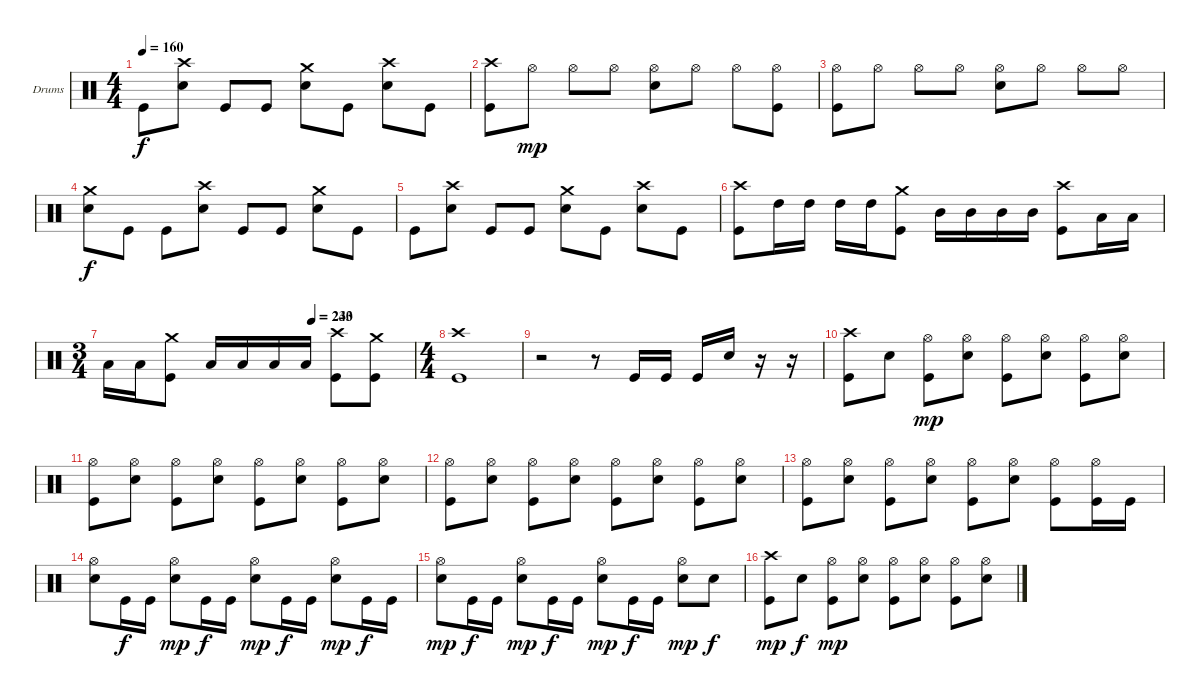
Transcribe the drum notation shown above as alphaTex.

\bracketExtendMode groupsimilarinstruments
\firstSystemTrackNameOrientation horizontal
\otherSystemsTrackNameOrientation horizontal
\track ("Drumkit" "Drums") {instrument percussion}
\staff {score}
\articulation defaults
\ts (4 4)
\tempo 160
\clef neutral
\ks c "Kick (hit)".8{dy f}
("Crash high (hit)" "Snare (hit) 2").8 "Kick (hit)".8 "Kick (hit)".8 ("Crash medium (hit)" "Snare (hit) 2").8 "Kick (hit)".8 ("Crash high (hit)" "Snare (hit) 2").8 "Kick (hit)".8 |
("Crash high (hit)" "Kick (hit)").8 "Hi-Hat (open)".8{dy mp} "Hi-Hat (open)".8 "Hi-Hat (open)".8 ("Hi-Hat (open)" "Snare (hit) 2").8 "Hi-Hat (open)".8 "Hi-Hat (open)".8 ("Hi-Hat (open)" "Kick (hit)").8 |
("Hi-Hat (open)" "Kick (hit)").8 "Hi-Hat (open)".8 "Hi-Hat (open)".8 "Hi-Hat (open)".8 ("Hi-Hat (open)" "Snare (hit) 2").8 "Hi-Hat (open)".8 "Hi-Hat (open)".8 "Hi-Hat (open)".8 |
("Crash medium (hit)" "Snare (hit) 2").8{dy f} "Kick (hit)".8 "Kick (hit)".8 ("Crash high (hit)" "Snare (hit) 2").8 "Kick (hit)".8 "Kick (hit)".8 ("Crash medium (hit)" "Snare (hit) 2").8 "Kick (hit)".8 |
"Kick (hit)".8 ("Crash high (hit)" "Snare (hit) 2").8 "Kick (hit)".8 "Kick (hit)".8 ("Crash medium (hit)" "Snare (hit) 2").8 "Kick (hit)".8 ("Crash high (hit)" "Snare (hit) 2").8 "Kick (hit)".8 |
("Crash high (hit)" "Kick (hit)").8 "High Tom (hit)".16 "High Tom (hit)".16 "High Tom (hit)".16 "High Tom (hit)".16 ("Crash medium (hit)" "Kick (hit)").8 "Mid Tom (hit)".16 "Mid Tom (hit)".16 "Mid Tom (hit)".16 "Mid Tom (hit)".16 ("Crash high (hit)" "Kick (hit)").8 "Low Tom (hit)".16 "Low Tom (hit)".16 |
\ts (3 4)
\beaming (8 2 2 2)
\tempo (233 0.666567)
\tempo (240 0.666667)
"Low Tom (hit)".16 "Low Tom (hit)".16 ("Crash medium (hit)" "Kick (hit)").8 "Low Tom (hit)".16 "Low Tom (hit)".16 "Low Tom (hit)".16 "Low Tom (hit)".16 ("Crash high (hit)" "Kick (hit)").8 ("Crash medium (hit)" "Kick (hit)").8 |
\ts (4 4)
\beaming (8 2 2 2 2)
("Crash high (hit)" "Kick (hit)").1 |
r.2 r.8 "Kick (hit)".16 "Kick (hit)".16 "Kick (hit)".16 "Snare (hit) 2".16 r.16 r.16 |
("Crash high (hit)" "Kick (hit)").8 "Snare (hit) 2".8 ("Hi-Hat (open)" "Kick (hit)").8{dy mp} ("Hi-Hat (open)" "Snare (hit) 2").8 ("Hi-Hat (open)" "Kick (hit)").8 ("Hi-Hat (open)" "Snare (hit) 2").8 ("Hi-Hat (open)" "Kick (hit)").8 ("Hi-Hat (open)" "Snare (hit) 2").8 |
("Hi-Hat (open)" "Kick (hit)").8 ("Hi-Hat (open)" "Snare (hit) 2").8 ("Hi-Hat (open)" "Kick (hit)").8 ("Hi-Hat (open)" "Snare (hit) 2").8 ("Hi-Hat (open)" "Kick (hit)").8 ("Hi-Hat (open)" "Snare (hit) 2").8 ("Hi-Hat (open)" "Kick (hit)").8 ("Hi-Hat (open)" "Snare (hit) 2").8 |
("Hi-Hat (open)" "Kick (hit)").8 ("Hi-Hat (open)" "Snare (hit) 2").8 ("Hi-Hat (open)" "Kick (hit)").8 ("Hi-Hat (open)" "Snare (hit) 2").8 ("Hi-Hat (open)" "Kick (hit)").8 ("Hi-Hat (open)" "Snare (hit) 2").8 ("Hi-Hat (open)" "Kick (hit)").8 ("Hi-Hat (open)" "Snare (hit) 2").8 |
("Hi-Hat (open)" "Kick (hit)").8 ("Hi-Hat (open)" "Snare (hit) 2").8 ("Hi-Hat (open)" "Kick (hit)").8 ("Hi-Hat (open)" "Snare (hit) 2").8 ("Hi-Hat (open)" "Kick (hit)").8 ("Hi-Hat (open)" "Snare (hit) 2").8 ("Hi-Hat (open)" "Kick (hit)").8 ("Hi-Hat (open)" "Kick (hit)").16 "Kick (hit)".16 |
("Hi-Hat (open)" "Snare (hit) 2").8 "Kick (hit)".16{dy f} "Kick (hit)".16 ("Hi-Hat (open)" "Snare (hit) 2").8{dy mp} "Kick (hit)".16{dy f} "Kick (hit)".16 ("Hi-Hat (open)" "Snare (hit) 2").8{dy mp} "Kick (hit)".16{dy f} "Kick (hit)".16 ("Hi-Hat (open)" "Snare (hit) 2").8{dy mp} "Kick (hit)".16{dy f} "Kick (hit)".16 |
("Hi-Hat (open)" "Snare (hit) 2").8{dy mp} "Kick (hit)".16{dy f} "Kick (hit)".16 ("Hi-Hat (open)" "Snare (hit) 2").8{dy mp} "Kick (hit)".16{dy f} "Kick (hit)".16 ("Hi-Hat (open)" "Snare (hit) 2").8{dy mp} "Kick (hit)".16{dy f} "Kick (hit)".16 ("Hi-Hat (open)" "Snare (hit) 2").8{dy mp} "Snare (hit) 2".8{dy f} |
("Crash high (hit)" "Kick (hit)").8{dy mp} "Snare (hit) 2".8{dy f} ("Hi-Hat (open)" "Kick (hit)").8{dy mp} ("Hi-Hat (open)" "Snare (hit) 2").8 ("Hi-Hat (open)" "Kick (hit)").8 ("Hi-Hat (open)" "Snare (hit) 2").8 ("Hi-Hat (open)" "Kick (hit)").8 ("Hi-Hat (open)" "Snare (hit) 2").8
